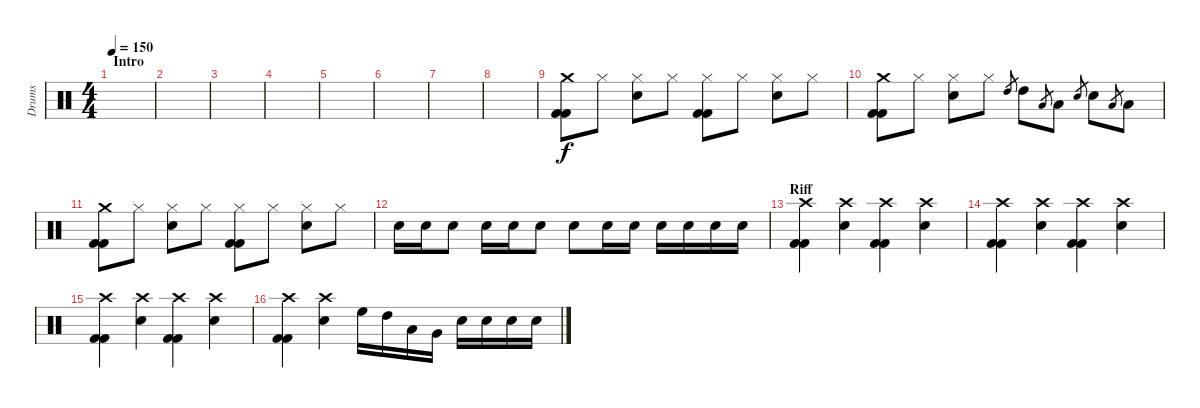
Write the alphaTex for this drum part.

\track ("Drums" "Drums") {instrument percussion}
\staff {score}
\articulation defaults
\ts (4 4)
\section ("" "Intro")
\tempo 150
\clef neutral
\ks c
|
|
|
|
|
|
|
|
("Crash medium (hit)" "Kick (hit) 2" "Kick (hit) 2").8 "Hi-Hat (closed)".8 ("Electric Snare (hit)" "Hi-Hat (closed)").8 "Hi-Hat (closed)".8 ("Hi-Hat (closed)" "Kick (hit) 2" "Kick (hit) 2").8 "Hi-Hat (closed)".8 ("Electric Snare (hit)" "Hi-Hat (closed)").8 "Hi-Hat (closed)".8 |
("Crash medium (hit)" "Kick (hit) 2" "Kick (hit) 2").8 "Hi-Hat (closed)".8 ("Electric Snare (hit)" "Hi-Hat (closed)").8 "Hi-Hat (closed)".8 "High Tom (hit)".8{gr} "High Tom (hit)".8 "Low Tom (hit)".8{gr} "Low Tom (hit)".8 "Electric Snare (hit)".8{gr} "Electric Snare (hit)".8 "Low Tom (hit)".8{gr} "Low Tom (hit)".8 |
("Crash medium (hit)" "Kick (hit) 2" "Kick (hit) 2").8 "Hi-Hat (closed)".8 ("Electric Snare (hit)" "Hi-Hat (closed)").8 "Hi-Hat (closed)".8 ("Hi-Hat (closed)" "Kick (hit) 2" "Kick (hit) 2").8 "Hi-Hat (closed)".8 ("Electric Snare (hit)" "Hi-Hat (closed)").8 "Hi-Hat (closed)".8 |
"Electric Snare (hit)".16 "Electric Snare (hit)".16 "Electric Snare (hit)".8 "Electric Snare (hit)".16 "Electric Snare (hit)".16 "Electric Snare (hit)".8 "Electric Snare (hit)".8 "Electric Snare (hit)".16 "Electric Snare (hit)".16 "Electric Snare (hit)".16 "Electric Snare (hit)".16 "Electric Snare (hit)".16 "Electric Snare (hit)".16 |
\section ("" "Riff")
("Crash high (hit)" "Kick (hit) 2" "Kick (hit) 2").4 ("Electric Snare (hit)" "Crash high (hit)").4 ("Crash high (hit)" "Kick (hit) 2" "Kick (hit) 2").4 ("Electric Snare (hit)" "Crash high (hit)").4 |
("Crash high (hit)" "Kick (hit) 2" "Kick (hit) 2").4 ("Electric Snare (hit)" "Crash high (hit)").4 ("Crash high (hit)" "Kick (hit) 2" "Kick (hit) 2").4 ("Electric Snare (hit)" "Crash high (hit)").4 |
("Crash high (hit)" "Kick (hit) 2" "Kick (hit) 2").4 ("Electric Snare (hit)" "Crash high (hit)").4 ("Crash high (hit)" "Kick (hit) 2" "Kick (hit) 2").4 ("Electric Snare (hit)" "Crash high (hit)").4 |
("Crash high (hit)" "Kick (hit) 2" "Kick (hit) 2").4 ("Electric Snare (hit)" "Crash high (hit)").4 "High Floor Tom (hit)".16 "High Tom (hit)".16 "Low Tom (hit)".16 "Very Low Tom (hit)".16 "Electric Snare (hit)".16 "Electric Snare (hit)".16 "Electric Snare (hit)".16 "Electric Snare (hit)".16
